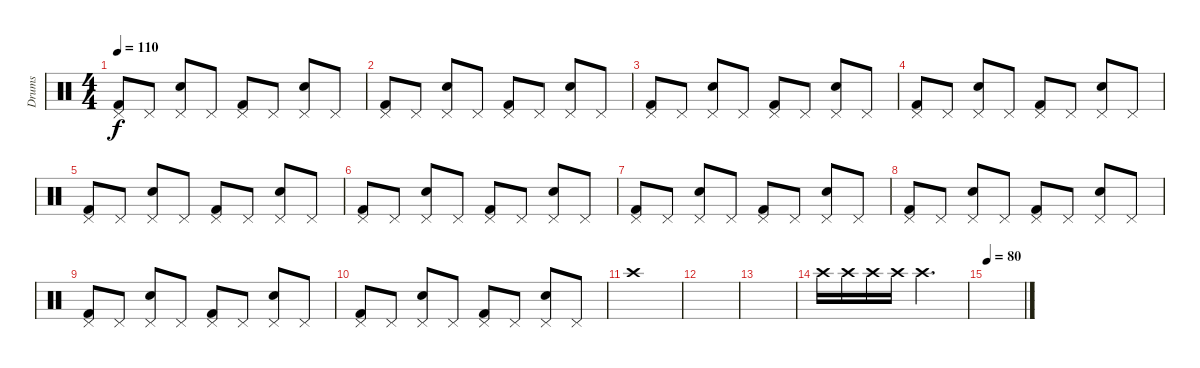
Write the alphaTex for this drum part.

\track ("Drums" "Drums") {instrument percussion}
\staff {score}
\articulation defaults
\ts (4 4)
\tempo 110
\clef neutral
\ks c
("Pedal Hi-Hat (hit)" "Kick (hit) 2").8{dy f} "Pedal Hi-Hat (hit)".8 ("Pedal Hi-Hat (hit)" "Electric Snare (hit)").8 "Pedal Hi-Hat (hit)".8 ("Pedal Hi-Hat (hit)" "Kick (hit) 2").8 "Pedal Hi-Hat (hit)".8 ("Pedal Hi-Hat (hit)" "Electric Snare (hit)").8 "Pedal Hi-Hat (hit)".8 |
("Pedal Hi-Hat (hit)" "Kick (hit) 2").8 "Pedal Hi-Hat (hit)".8 ("Pedal Hi-Hat (hit)" "Electric Snare (hit)").8 "Pedal Hi-Hat (hit)".8 ("Pedal Hi-Hat (hit)" "Kick (hit) 2").8 "Pedal Hi-Hat (hit)".8 ("Pedal Hi-Hat (hit)" "Electric Snare (hit)").8 "Pedal Hi-Hat (hit)".8 |
("Pedal Hi-Hat (hit)" "Kick (hit) 2").8 "Pedal Hi-Hat (hit)".8 ("Pedal Hi-Hat (hit)" "Electric Snare (hit)").8 "Pedal Hi-Hat (hit)".8 ("Pedal Hi-Hat (hit)" "Kick (hit) 2").8 "Pedal Hi-Hat (hit)".8 ("Pedal Hi-Hat (hit)" "Electric Snare (hit)").8 "Pedal Hi-Hat (hit)".8 |
("Pedal Hi-Hat (hit)" "Kick (hit) 2").8 "Pedal Hi-Hat (hit)".8 ("Pedal Hi-Hat (hit)" "Electric Snare (hit)").8 "Pedal Hi-Hat (hit)".8 ("Pedal Hi-Hat (hit)" "Kick (hit) 2").8 "Pedal Hi-Hat (hit)".8 ("Pedal Hi-Hat (hit)" "Electric Snare (hit)").8 "Pedal Hi-Hat (hit)".8 |
("Pedal Hi-Hat (hit)" "Kick (hit) 2").8 "Pedal Hi-Hat (hit)".8 ("Pedal Hi-Hat (hit)" "Electric Snare (hit)").8 "Pedal Hi-Hat (hit)".8 ("Pedal Hi-Hat (hit)" "Kick (hit) 2").8 "Pedal Hi-Hat (hit)".8 ("Pedal Hi-Hat (hit)" "Electric Snare (hit)").8 "Pedal Hi-Hat (hit)".8 |
("Pedal Hi-Hat (hit)" "Kick (hit) 2").8 "Pedal Hi-Hat (hit)".8 ("Pedal Hi-Hat (hit)" "Electric Snare (hit)").8 "Pedal Hi-Hat (hit)".8 ("Pedal Hi-Hat (hit)" "Kick (hit) 2").8 "Pedal Hi-Hat (hit)".8 ("Pedal Hi-Hat (hit)" "Electric Snare (hit)").8 "Pedal Hi-Hat (hit)".8 |
("Pedal Hi-Hat (hit)" "Kick (hit) 2").8 "Pedal Hi-Hat (hit)".8 ("Pedal Hi-Hat (hit)" "Electric Snare (hit)").8 "Pedal Hi-Hat (hit)".8 ("Pedal Hi-Hat (hit)" "Kick (hit) 2").8 "Pedal Hi-Hat (hit)".8 ("Pedal Hi-Hat (hit)" "Electric Snare (hit)").8 "Pedal Hi-Hat (hit)".8 |
("Pedal Hi-Hat (hit)" "Kick (hit) 2").8 "Pedal Hi-Hat (hit)".8 ("Pedal Hi-Hat (hit)" "Electric Snare (hit)").8 "Pedal Hi-Hat (hit)".8 ("Pedal Hi-Hat (hit)" "Kick (hit) 2").8 "Pedal Hi-Hat (hit)".8 ("Pedal Hi-Hat (hit)" "Electric Snare (hit)").8 "Pedal Hi-Hat (hit)".8 |
("Pedal Hi-Hat (hit)" "Kick (hit) 2").8 "Pedal Hi-Hat (hit)".8 ("Pedal Hi-Hat (hit)" "Electric Snare (hit)").8 "Pedal Hi-Hat (hit)".8 ("Pedal Hi-Hat (hit)" "Kick (hit) 2").8 "Pedal Hi-Hat (hit)".8 ("Pedal Hi-Hat (hit)" "Electric Snare (hit)").8 "Pedal Hi-Hat (hit)".8 |
("Pedal Hi-Hat (hit)" "Kick (hit) 2").8 "Pedal Hi-Hat (hit)".8 ("Pedal Hi-Hat (hit)" "Electric Snare (hit)").8 "Pedal Hi-Hat (hit)".8 ("Pedal Hi-Hat (hit)" "Kick (hit) 2").8 "Pedal Hi-Hat (hit)".8 ("Pedal Hi-Hat (hit)" "Electric Snare (hit)").8 "Pedal Hi-Hat (hit)".8 |
"Crash high (hit)".1 |
|
|
"Crash high (hit)".16 "Crash high (hit)".16 "Crash high (hit)".16 "Crash high (hit)".16 "Crash high (hit)".2{d} |
\tempo 80
